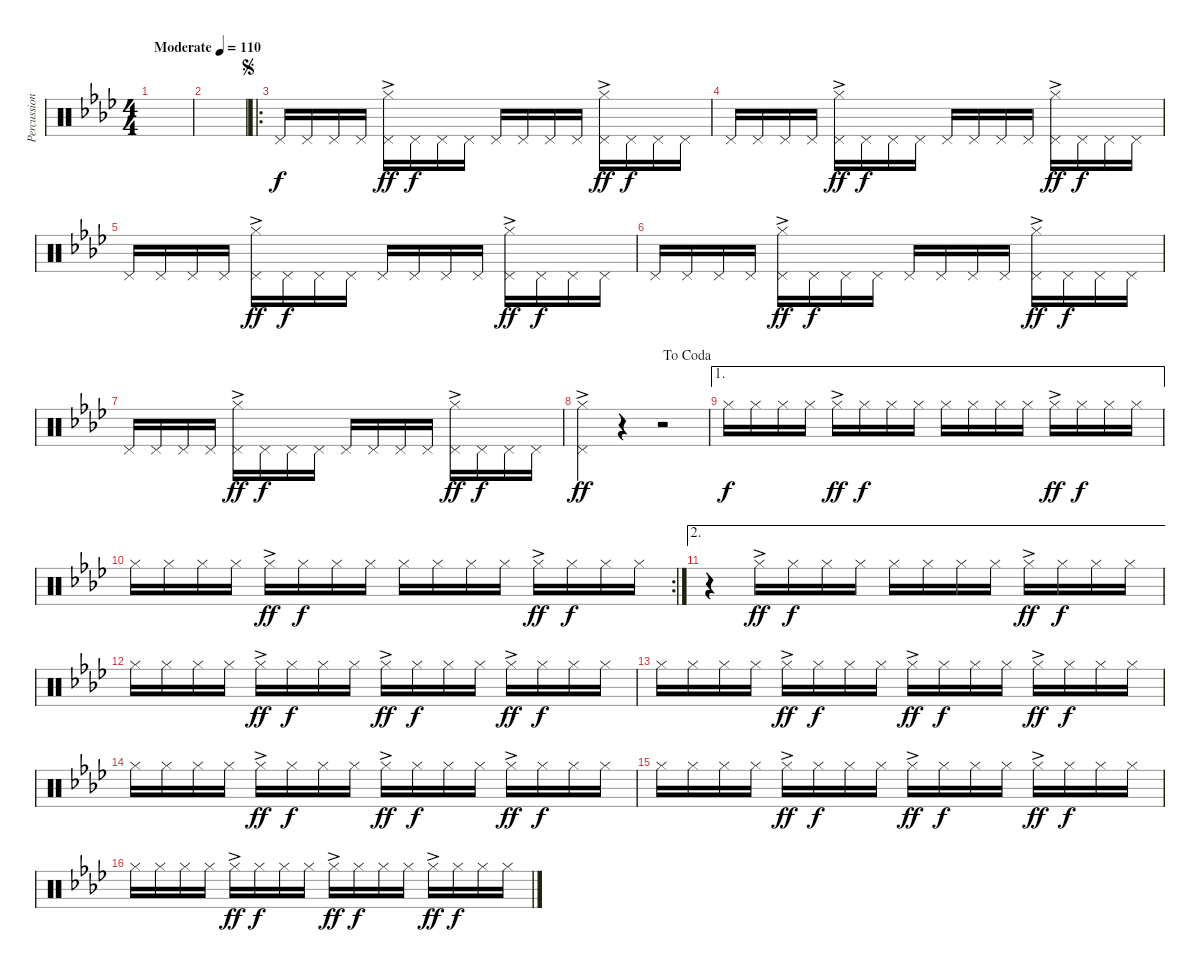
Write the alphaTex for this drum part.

\track ("Percussion" "Percussion") {instrument percussion}
\staff {score}
\articulation defaults
\ts (4 4)
\tempo (110 "Moderate")
\clef neutral
\ks ab
|
|
\ro
\jump segno "Pedal Hi-Hat (hit)".16 "Pedal Hi-Hat (hit)".16 "Pedal Hi-Hat (hit)".16 "Pedal Hi-Hat (hit)".16
("Hi-Hat (closed)"{ac} "Pedal Hi-Hat (hit)").16{dy ff} "Pedal Hi-Hat (hit)".16{dy f} "Pedal Hi-Hat (hit)".16 "Pedal Hi-Hat (hit)".16 "Pedal Hi-Hat (hit)".16 "Pedal Hi-Hat (hit)".16 "Pedal Hi-Hat (hit)".16 "Pedal Hi-Hat (hit)".16 ("Hi-Hat (closed)"{ac} "Pedal Hi-Hat (hit)").16{dy ff} "Pedal Hi-Hat (hit)".16{dy f} "Pedal Hi-Hat (hit)".16 "Pedal Hi-Hat (hit)".16 |
"Pedal Hi-Hat (hit)".16 "Pedal Hi-Hat (hit)".16 "Pedal Hi-Hat (hit)".16 "Pedal Hi-Hat (hit)".16 ("Hi-Hat (closed)"{ac} "Pedal Hi-Hat (hit)").16{dy ff} "Pedal Hi-Hat (hit)".16{dy f} "Pedal Hi-Hat (hit)".16 "Pedal Hi-Hat (hit)".16 "Pedal Hi-Hat (hit)".16 "Pedal Hi-Hat (hit)".16 "Pedal Hi-Hat (hit)".16 "Pedal Hi-Hat (hit)".16 ("Hi-Hat (closed)"{ac} "Pedal Hi-Hat (hit)").16{dy ff} "Pedal Hi-Hat (hit)".16{dy f} "Pedal Hi-Hat (hit)".16 "Pedal Hi-Hat (hit)".16 |
"Pedal Hi-Hat (hit)".16 "Pedal Hi-Hat (hit)".16 "Pedal Hi-Hat (hit)".16 "Pedal Hi-Hat (hit)".16 ("Hi-Hat (closed)"{ac} "Pedal Hi-Hat (hit)").16{dy ff} "Pedal Hi-Hat (hit)".16{dy f} "Pedal Hi-Hat (hit)".16 "Pedal Hi-Hat (hit)".16 "Pedal Hi-Hat (hit)".16 "Pedal Hi-Hat (hit)".16 "Pedal Hi-Hat (hit)".16 "Pedal Hi-Hat (hit)".16 ("Hi-Hat (closed)"{ac} "Pedal Hi-Hat (hit)").16{dy ff} "Pedal Hi-Hat (hit)".16{dy f} "Pedal Hi-Hat (hit)".16 "Pedal Hi-Hat (hit)".16 |
"Pedal Hi-Hat (hit)".16 "Pedal Hi-Hat (hit)".16 "Pedal Hi-Hat (hit)".16 "Pedal Hi-Hat (hit)".16 ("Hi-Hat (closed)"{ac} "Pedal Hi-Hat (hit)").16{dy ff} "Pedal Hi-Hat (hit)".16{dy f} "Pedal Hi-Hat (hit)".16 "Pedal Hi-Hat (hit)".16 "Pedal Hi-Hat (hit)".16 "Pedal Hi-Hat (hit)".16 "Pedal Hi-Hat (hit)".16 "Pedal Hi-Hat (hit)".16 ("Hi-Hat (closed)"{ac} "Pedal Hi-Hat (hit)").16{dy ff} "Pedal Hi-Hat (hit)".16{dy f} "Pedal Hi-Hat (hit)".16 "Pedal Hi-Hat (hit)".16 |
"Pedal Hi-Hat (hit)".16 "Pedal Hi-Hat (hit)".16 "Pedal Hi-Hat (hit)".16 "Pedal Hi-Hat (hit)".16 ("Hi-Hat (closed)"{ac} "Pedal Hi-Hat (hit)").16{dy ff} "Pedal Hi-Hat (hit)".16{dy f} "Pedal Hi-Hat (hit)".16 "Pedal Hi-Hat (hit)".16 "Pedal Hi-Hat (hit)".16 "Pedal Hi-Hat (hit)".16 "Pedal Hi-Hat (hit)".16 "Pedal Hi-Hat (hit)".16 ("Hi-Hat (closed)"{ac} "Pedal Hi-Hat (hit)").16{dy ff} "Pedal Hi-Hat (hit)".16{dy f} "Pedal Hi-Hat (hit)".16 "Pedal Hi-Hat (hit)".16 |
\jump dacoda
("Hi-Hat (closed)"{ac} "Pedal Hi-Hat (hit)"{ac}).4{dy ff} r.4 r.2 |
\ae 1 "Hi-Hat (closed)".16{dy f} "Hi-Hat (closed)".16 "Hi-Hat (closed)".16 "Hi-Hat (closed)".16 "Hi-Hat (closed)"{ac}.16{dy ff} "Hi-Hat (closed)".16{dy f} "Hi-Hat (closed)".16 "Hi-Hat (closed)".16 "Hi-Hat (closed)".16 "Hi-Hat (closed)".16 "Hi-Hat (closed)".16 "Hi-Hat (closed)".16 "Hi-Hat (closed)"{ac}.16{dy ff} "Hi-Hat (closed)".16{dy f} "Hi-Hat (closed)".16 "Hi-Hat (closed)".16
|
\rc 2 "Hi-Hat (closed)".16 "Hi-Hat (closed)".16 "Hi-Hat (closed)".16 "Hi-Hat (closed)".16 "Hi-Hat (closed)"{ac}.16{dy ff} "Hi-Hat (closed)".16{dy f} "Hi-Hat (closed)".16 "Hi-Hat (closed)".16 "Hi-Hat (closed)".16 "Hi-Hat (closed)".16 "Hi-Hat (closed)".16 "Hi-Hat (closed)".16 "Hi-Hat (closed)"{ac}.16{dy ff} "Hi-Hat (closed)".16{dy f} "Hi-Hat (closed)".16 "Hi-Hat (closed)".16
|
\ae 2
r.4 "Hi-Hat (closed)"{ac}.16{dy ff} "Hi-Hat (closed)".16{dy f} "Hi-Hat (closed)".16 "Hi-Hat (closed)".16 "Hi-Hat (closed)".16 "Hi-Hat (closed)".16 "Hi-Hat (closed)".16 "Hi-Hat (closed)".16 "Hi-Hat (closed)"{ac}.16{dy ff} "Hi-Hat (closed)".16{dy f} "Hi-Hat (closed)".16 "Hi-Hat (closed)".16 |
"Hi-Hat (closed)".16 "Hi-Hat (closed)".16 "Hi-Hat (closed)".16 "Hi-Hat (closed)".16 "Hi-Hat (closed)"{ac}.16{dy ff} "Hi-Hat (closed)".16{dy f} "Hi-Hat (closed)".16 "Hi-Hat (closed)".16 "Hi-Hat (closed)"{ac}.16{dy ff} "Hi-Hat (closed)".16{dy f} "Hi-Hat (closed)".16 "Hi-Hat (closed)".16 "Hi-Hat (closed)"{ac}.16{dy ff} "Hi-Hat (closed)".16{dy f} "Hi-Hat (closed)".16 "Hi-Hat (closed)".16 |
"Hi-Hat (closed)".16 "Hi-Hat (closed)".16 "Hi-Hat (closed)".16 "Hi-Hat (closed)".16 "Hi-Hat (closed)"{ac}.16{dy ff} "Hi-Hat (closed)".16{dy f} "Hi-Hat (closed)".16 "Hi-Hat (closed)".16 "Hi-Hat (closed)"{ac}.16{dy ff} "Hi-Hat (closed)".16{dy f} "Hi-Hat (closed)".16 "Hi-Hat (closed)".16 "Hi-Hat (closed)"{ac}.16{dy ff} "Hi-Hat (closed)".16{dy f} "Hi-Hat (closed)".16 "Hi-Hat (closed)".16 |
"Hi-Hat (closed)".16 "Hi-Hat (closed)".16 "Hi-Hat (closed)".16 "Hi-Hat (closed)".16 "Hi-Hat (closed)"{ac}.16{dy ff} "Hi-Hat (closed)".16{dy f} "Hi-Hat (closed)".16 "Hi-Hat (closed)".16 "Hi-Hat (closed)"{ac}.16{dy ff} "Hi-Hat (closed)".16{dy f} "Hi-Hat (closed)".16 "Hi-Hat (closed)".16 "Hi-Hat (closed)"{ac}.16{dy ff} "Hi-Hat (closed)".16{dy f} "Hi-Hat (closed)".16 "Hi-Hat (closed)".16 |
"Hi-Hat (closed)".16 "Hi-Hat (closed)".16 "Hi-Hat (closed)".16 "Hi-Hat (closed)".16 "Hi-Hat (closed)"{ac}.16{dy ff} "Hi-Hat (closed)".16{dy f} "Hi-Hat (closed)".16 "Hi-Hat (closed)".16 "Hi-Hat (closed)"{ac}.16{dy ff} "Hi-Hat (closed)".16{dy f} "Hi-Hat (closed)".16 "Hi-Hat (closed)".16 "Hi-Hat (closed)"{ac}.16{dy ff} "Hi-Hat (closed)".16{dy f} "Hi-Hat (closed)".16 "Hi-Hat (closed)".16 |
"Hi-Hat (closed)".16 "Hi-Hat (closed)".16 "Hi-Hat (closed)".16 "Hi-Hat (closed)".16 "Hi-Hat (closed)"{ac}.16{dy ff} "Hi-Hat (closed)".16{dy f} "Hi-Hat (closed)".16 "Hi-Hat (closed)".16 "Hi-Hat (closed)"{ac}.16{dy ff} "Hi-Hat (closed)".16{dy f} "Hi-Hat (closed)".16 "Hi-Hat (closed)".16 "Hi-Hat (closed)"{ac}.16{dy ff} "Hi-Hat (closed)".16{dy f} "Hi-Hat (closed)".16 "Hi-Hat (closed)".16
